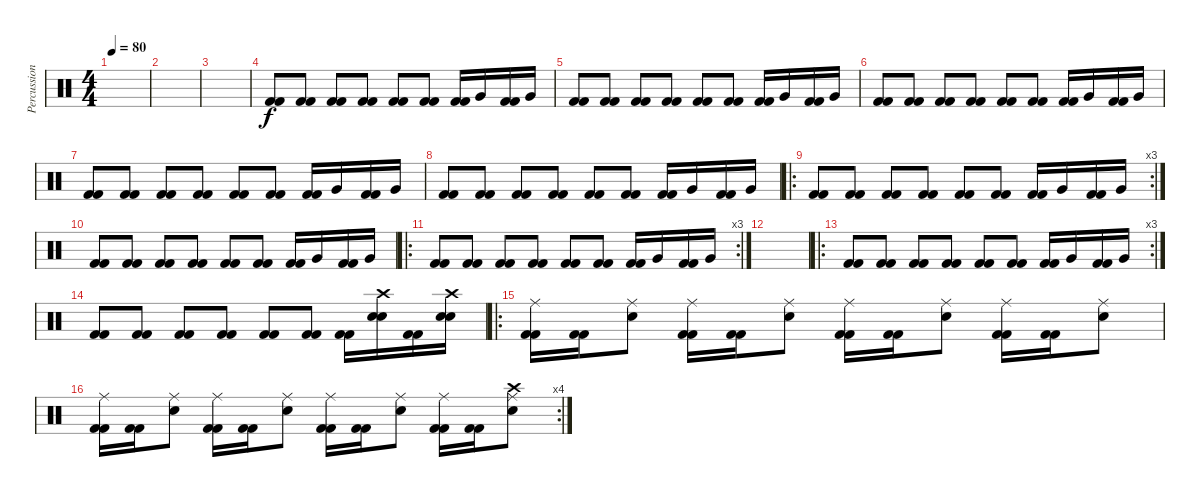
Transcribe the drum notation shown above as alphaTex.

\track ("Percussion" "Percussion") {instrument percussion}
\staff {score}
\articulation defaults
\ts (4 4)
\tempo 80
\clef neutral
\ks c
|
|
|
("Kick (hit) 2" "Kick (hit) 2").8 ("Kick (hit) 2" "Kick (hit) 2").8 ("Kick (hit) 2" "Kick (hit) 2").8 ("Kick (hit) 2" "Kick (hit) 2").8 ("Kick (hit) 2" "Kick (hit) 2").8 ("Kick (hit) 2" "Kick (hit) 2").8 ("Kick (hit) 2" "Kick (hit) 2").16 "Very Low Tom (hit)".16 ("Kick (hit) 2" "Kick (hit) 2").16 "Very Low Tom (hit)".16 |
("Kick (hit) 2" "Kick (hit) 2").8 ("Kick (hit) 2" "Kick (hit) 2").8 ("Kick (hit) 2" "Kick (hit) 2").8 ("Kick (hit) 2" "Kick (hit) 2").8 ("Kick (hit) 2" "Kick (hit) 2").8 ("Kick (hit) 2" "Kick (hit) 2").8 ("Kick (hit) 2" "Kick (hit) 2").16 "Very Low Tom (hit)".16 ("Kick (hit) 2" "Kick (hit) 2").16 "Very Low Tom (hit)".16 |
("Kick (hit) 2" "Kick (hit) 2").8 ("Kick (hit) 2" "Kick (hit) 2").8 ("Kick (hit) 2" "Kick (hit) 2").8 ("Kick (hit) 2" "Kick (hit) 2").8 ("Kick (hit) 2" "Kick (hit) 2").8 ("Kick (hit) 2" "Kick (hit) 2").8 ("Kick (hit) 2" "Kick (hit) 2").16 "Very Low Tom (hit)".16 ("Kick (hit) 2" "Kick (hit) 2").16 "Very Low Tom (hit)".16 |
("Kick (hit) 2" "Kick (hit) 2").8 ("Kick (hit) 2" "Kick (hit) 2").8 ("Kick (hit) 2" "Kick (hit) 2").8 ("Kick (hit) 2" "Kick (hit) 2").8 ("Kick (hit) 2" "Kick (hit) 2").8 ("Kick (hit) 2" "Kick (hit) 2").8 ("Kick (hit) 2" "Kick (hit) 2").16 "Very Low Tom (hit)".16 ("Kick (hit) 2" "Kick (hit) 2").16 "Very Low Tom (hit)".16 |
("Kick (hit) 2" "Kick (hit) 2").8 ("Kick (hit) 2" "Kick (hit) 2").8 ("Kick (hit) 2" "Kick (hit) 2").8 ("Kick (hit) 2" "Kick (hit) 2").8 ("Kick (hit) 2" "Kick (hit) 2").8 ("Kick (hit) 2" "Kick (hit) 2").8 ("Kick (hit) 2" "Kick (hit) 2").16 "Very Low Tom (hit)".16 ("Kick (hit) 2" "Kick (hit) 2").16 "Very Low Tom (hit)".16 |
\ro
\rc 3
("Kick (hit) 2" "Kick (hit) 2").8 ("Kick (hit) 2" "Kick (hit) 2").8 ("Kick (hit) 2" "Kick (hit) 2").8 ("Kick (hit) 2" "Kick (hit) 2").8 ("Kick (hit) 2" "Kick (hit) 2").8 ("Kick (hit) 2" "Kick (hit) 2").8 ("Kick (hit) 2" "Kick (hit) 2").16 "Very Low Tom (hit)".16 ("Kick (hit) 2" "Kick (hit) 2").16 "Very Low Tom (hit)".16 |
("Kick (hit) 2" "Kick (hit) 2").8 ("Kick (hit) 2" "Kick (hit) 2").8 ("Kick (hit) 2" "Kick (hit) 2").8 ("Kick (hit) 2" "Kick (hit) 2").8 ("Kick (hit) 2" "Kick (hit) 2").8 ("Kick (hit) 2" "Kick (hit) 2").8 ("Kick (hit) 2" "Kick (hit) 2").16 "Very Low Tom (hit)".16 ("Kick (hit) 2" "Kick (hit) 2").16 "Very Low Tom (hit)".16 |
\ro
\rc 3
("Kick (hit) 2" "Kick (hit) 2").8 ("Kick (hit) 2" "Kick (hit) 2").8 ("Kick (hit) 2" "Kick (hit) 2").8 ("Kick (hit) 2" "Kick (hit) 2").8 ("Kick (hit) 2" "Kick (hit) 2").8 ("Kick (hit) 2" "Kick (hit) 2").8 ("Kick (hit) 2" "Kick (hit) 2").16 "Very Low Tom (hit)".16 ("Kick (hit) 2" "Kick (hit) 2").16 "Very Low Tom (hit)".16 |
|
\ro
\rc 3
("Kick (hit) 2" "Kick (hit) 2").8 ("Kick (hit) 2" "Kick (hit) 2").8 ("Kick (hit) 2" "Kick (hit) 2").8 ("Kick (hit) 2" "Kick (hit) 2").8 ("Kick (hit) 2" "Kick (hit) 2").8 ("Kick (hit) 2" "Kick (hit) 2").8 ("Kick (hit) 2" "Kick (hit) 2").16 "Very Low Tom (hit)".16 ("Kick (hit) 2" "Kick (hit) 2").16 "Very Low Tom (hit)".16 |
("Kick (hit) 2" "Kick (hit) 2").8 ("Kick (hit) 2" "Kick (hit) 2").8 ("Kick (hit) 2" "Kick (hit) 2").8 ("Kick (hit) 2" "Kick (hit) 2").8 ("Kick (hit) 2" "Kick (hit) 2").8 ("Kick (hit) 2" "Kick (hit) 2").8 ("Kick (hit) 2" "Kick (hit) 2").16 ("Crash high (hit)" "Electric Snare (hit)" "Electric Snare (hit)").16 ("Kick (hit) 2" "Kick (hit) 2").16 ("Crash high (hit)" "Electric Snare (hit)" "Electric Snare (hit)").16 |
\ro
("Kick (hit) 2" "Kick (hit) 2" "Ride (middle)").16 ("Kick (hit) 2" "Kick (hit) 2").16 ("Snare (hit) 2" "Ride (middle)").8 ("Kick (hit) 2" "Kick (hit) 2" "Ride (middle)").16 ("Kick (hit) 2" "Kick (hit) 2").16 ("Snare (hit) 2" "Ride (middle)").8 ("Kick (hit) 2" "Kick (hit) 2" "Ride (middle)").16 ("Kick (hit) 2" "Kick (hit) 2").16 ("Snare (hit) 2" "Ride (middle)").8 ("Kick (hit) 2" "Kick (hit) 2" "Ride (middle)").16 ("Kick (hit) 2" "Kick (hit) 2").16 ("Snare (hit) 2" "Ride (middle)").8 |
\rc 4
("Kick (hit) 2" "Kick (hit) 2" "Ride (middle)").16 ("Kick (hit) 2" "Kick (hit) 2").16 ("Snare (hit) 2" "Ride (middle)").8 ("Kick (hit) 2" "Kick (hit) 2" "Ride (middle)").16 ("Kick (hit) 2" "Kick (hit) 2").16 ("Snare (hit) 2" "Ride (middle)").8 ("Kick (hit) 2" "Kick (hit) 2" "Ride (middle)").16 ("Kick (hit) 2" "Kick (hit) 2").16 ("Snare (hit) 2" "Ride (middle)").8 ("Kick (hit) 2" "Kick (hit) 2" "Ride (middle)").16 ("Kick (hit) 2" "Kick (hit) 2").16 ("Snare (hit) 2" "Crash high (hit)" "Ride (middle)").8
